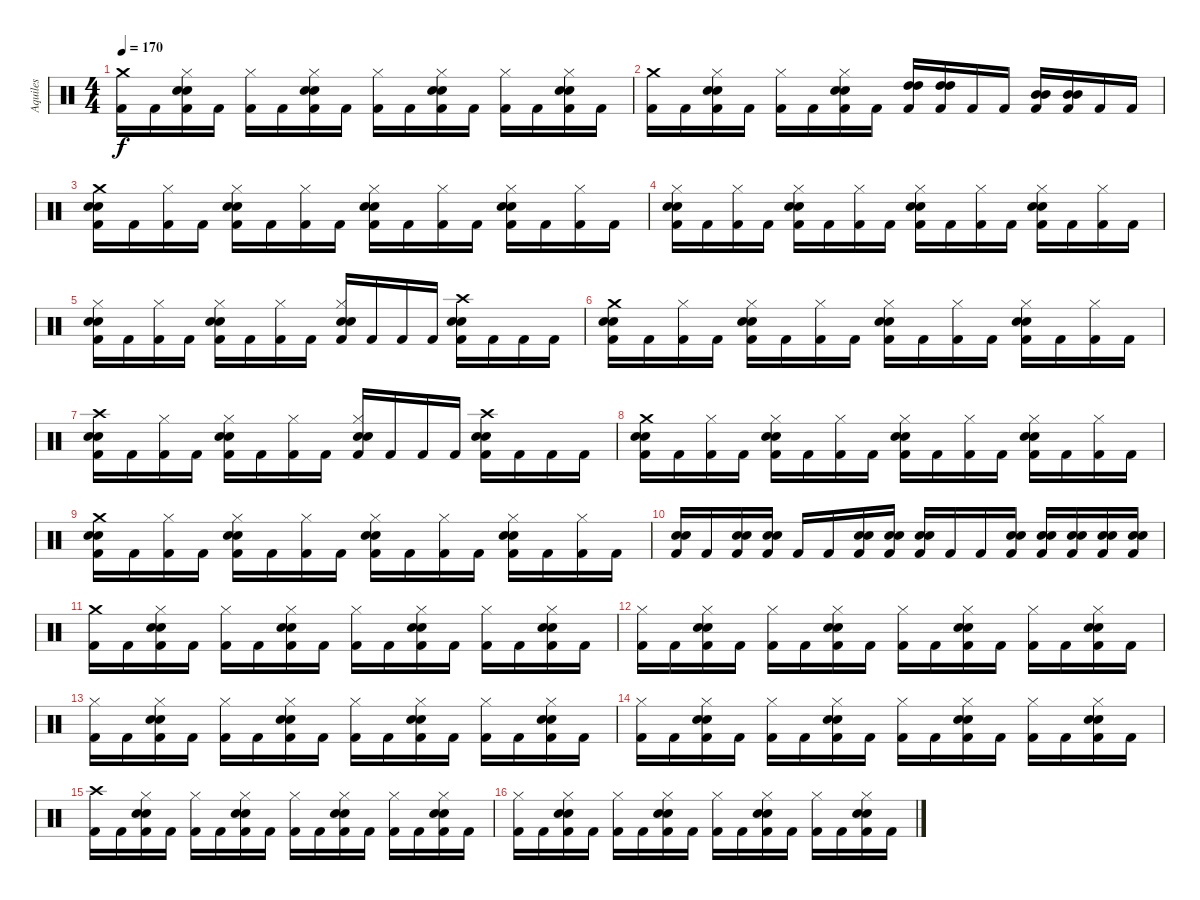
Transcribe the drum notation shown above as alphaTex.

\track ("Aquiles" "Aquiles") {instrument percussion}
\staff {score}
\articulation defaults
\ts (4 4)
\tempo 170
\clef neutral
\ks c
("Crash medium (hit)" "Kick (hit) 2").16{dy f} "Kick (hit) 2".16 ("Hi-Hat (closed)" "Electric Snare (hit)" "Snare (hit) 2" "Kick (hit) 2").16 "Kick (hit) 2".16 ("Hi-Hat (closed)" "Kick (hit) 2").16 "Kick (hit) 2".16 ("Hi-Hat (closed)" "Electric Snare (hit)" "Snare (hit) 2" "Kick (hit) 2").16 "Kick (hit) 2".16 ("Hi-Hat (closed)" "Kick (hit) 2").16 "Kick (hit) 2".16 ("Hi-Hat (closed)" "Electric Snare (hit)" "Snare (hit) 2" "Kick (hit) 2").16 "Kick (hit) 2".16 ("Hi-Hat (closed)" "Kick (hit) 2").16 "Kick (hit) 2".16 ("Hi-Hat (closed)" "Electric Snare (hit)" "Snare (hit) 2" "Kick (hit) 2").16 "Kick (hit) 2".16 |
("Crash medium (hit)" "Kick (hit) 2").16 "Kick (hit) 2".16 ("Hi-Hat (closed)" "Electric Snare (hit)" "Snare (hit) 2" "Kick (hit) 2").16 "Kick (hit) 2".16 ("Hi-Hat (closed)" "Kick (hit) 2").16 "Kick (hit) 2".16 ("Hi-Hat (closed)" "Electric Snare (hit)" "Snare (hit) 2" "Kick (hit) 2").16 "Kick (hit) 2".16 ("High Tom (hit)" "High Tom (hit)" "Kick (hit) 2").16 ("High Tom (hit)" "High Tom (hit)" "Kick (hit) 2").16 "Kick (hit) 2".16 "Kick (hit) 2".16 ("Mid Tom (hit)" "Mid Tom (hit)" "Kick (hit) 2").16 ("Mid Tom (hit)" "Mid Tom (hit)" "Kick (hit) 2").16 "Kick (hit) 2".16 "Kick (hit) 2".16 |
("Crash medium (hit)" "Electric Snare (hit)" "Snare (hit) 2" "Kick (hit) 2").16 "Kick (hit) 2".16 ("Hi-Hat (closed)" "Kick (hit) 2").16 "Kick (hit) 2".16 ("Hi-Hat (closed)" "Electric Snare (hit)" "Snare (hit) 2" "Kick (hit) 2").16 "Kick (hit) 2".16 ("Hi-Hat (closed)" "Kick (hit) 2").16 "Kick (hit) 2".16 ("Hi-Hat (closed)" "Electric Snare (hit)" "Snare (hit) 2" "Kick (hit) 2").16 "Kick (hit) 2".16 ("Hi-Hat (closed)" "Kick (hit) 2").16 "Kick (hit) 2".16 ("Hi-Hat (closed)" "Electric Snare (hit)" "Snare (hit) 2" "Kick (hit) 2").16 "Kick (hit) 2".16 ("Hi-Hat (closed)" "Kick (hit) 2").16 "Kick (hit) 2".16 |
("Hi-Hat (closed)" "Electric Snare (hit)" "Snare (hit) 2" "Kick (hit) 2").16 "Kick (hit) 2".16 ("Hi-Hat (closed)" "Kick (hit) 2").16 "Kick (hit) 2".16 ("Hi-Hat (closed)" "Electric Snare (hit)" "Snare (hit) 2" "Kick (hit) 2").16 "Kick (hit) 2".16 ("Hi-Hat (closed)" "Kick (hit) 2").16 "Kick (hit) 2".16 ("Hi-Hat (closed)" "Electric Snare (hit)" "Snare (hit) 2" "Kick (hit) 2").16 "Kick (hit) 2".16 ("Hi-Hat (closed)" "Kick (hit) 2").16 "Kick (hit) 2".16 ("Hi-Hat (closed)" "Electric Snare (hit)" "Snare (hit) 2" "Kick (hit) 2").16 "Kick (hit) 2".16 ("Hi-Hat (closed)" "Kick (hit) 2").16 "Kick (hit) 2".16 |
("Hi-Hat (closed)" "Electric Snare (hit)" "Snare (hit) 2" "Kick (hit) 2").16 "Kick (hit) 2".16 ("Hi-Hat (closed)" "Kick (hit) 2").16 "Kick (hit) 2".16 ("Hi-Hat (closed)" "Electric Snare (hit)" "Snare (hit) 2" "Kick (hit) 2").16 "Kick (hit) 2".16 ("Hi-Hat (closed)" "Kick (hit) 2").16 "Kick (hit) 2".16 ("Hi-Hat (closed)" "Electric Snare (hit)" "Snare (hit) 2" "Kick (hit) 2").16 "Kick (hit) 2".16 "Kick (hit) 2".16 "Kick (hit) 2".16 ("Crash high (hit)" "Electric Snare (hit)" "Snare (hit) 2" "Kick (hit) 2").16 "Kick (hit) 2".16 "Kick (hit) 2".16 "Kick (hit) 2".16 |
("Crash medium (hit)" "Electric Snare (hit)" "Snare (hit) 2" "Kick (hit) 2").16 "Kick (hit) 2".16 ("Hi-Hat (closed)" "Kick (hit) 2").16 "Kick (hit) 2".16 ("Hi-Hat (closed)" "Electric Snare (hit)" "Snare (hit) 2" "Kick (hit) 2").16 "Kick (hit) 2".16 ("Hi-Hat (closed)" "Kick (hit) 2").16 "Kick (hit) 2".16 ("Hi-Hat (closed)" "Electric Snare (hit)" "Snare (hit) 2" "Kick (hit) 2").16 "Kick (hit) 2".16 ("Hi-Hat (closed)" "Kick (hit) 2").16 "Kick (hit) 2".16 ("Hi-Hat (closed)" "Electric Snare (hit)" "Snare (hit) 2" "Kick (hit) 2").16 "Kick (hit) 2".16 ("Hi-Hat (closed)" "Kick (hit) 2").16 "Kick (hit) 2".16 |
("Crash high (hit)" "Electric Snare (hit)" "Snare (hit) 2" "Kick (hit) 2").16 "Kick (hit) 2".16 ("Hi-Hat (closed)" "Kick (hit) 2").16 "Kick (hit) 2".16 ("Hi-Hat (closed)" "Electric Snare (hit)" "Snare (hit) 2" "Kick (hit) 2").16 "Kick (hit) 2".16 ("Hi-Hat (closed)" "Kick (hit) 2").16 "Kick (hit) 2".16 ("Hi-Hat (closed)" "Electric Snare (hit)" "Snare (hit) 2" "Kick (hit) 2").16 "Kick (hit) 2".16 "Kick (hit) 2".16 "Kick (hit) 2".16 ("Crash high (hit)" "Electric Snare (hit)" "Snare (hit) 2" "Kick (hit) 2").16 "Kick (hit) 2".16 "Kick (hit) 2".16 "Kick (hit) 2".16 |
("Crash medium (hit)" "Electric Snare (hit)" "Snare (hit) 2" "Kick (hit) 2").16 "Kick (hit) 2".16 ("Hi-Hat (closed)" "Kick (hit) 2").16 "Kick (hit) 2".16 ("Hi-Hat (closed)" "Electric Snare (hit)" "Snare (hit) 2" "Kick (hit) 2").16 "Kick (hit) 2".16 ("Hi-Hat (closed)" "Kick (hit) 2").16 "Kick (hit) 2".16 ("Hi-Hat (closed)" "Electric Snare (hit)" "Snare (hit) 2" "Kick (hit) 2").16 "Kick (hit) 2".16 ("Hi-Hat (closed)" "Kick (hit) 2").16 "Kick (hit) 2".16 ("Hi-Hat (closed)" "Electric Snare (hit)" "Snare (hit) 2" "Kick (hit) 2").16 "Kick (hit) 2".16 ("Hi-Hat (closed)" "Kick (hit) 2").16 "Kick (hit) 2".16 |
("Crash medium (hit)" "Electric Snare (hit)" "Snare (hit) 2" "Kick (hit) 2").16 "Kick (hit) 2".16 ("Hi-Hat (closed)" "Kick (hit) 2").16 "Kick (hit) 2".16 ("Hi-Hat (closed)" "Electric Snare (hit)" "Snare (hit) 2" "Kick (hit) 2").16 "Kick (hit) 2".16 ("Hi-Hat (closed)" "Kick (hit) 2").16 "Kick (hit) 2".16 ("Hi-Hat (closed)" "Electric Snare (hit)" "Snare (hit) 2" "Kick (hit) 2").16 "Kick (hit) 2".16 ("Hi-Hat (closed)" "Kick (hit) 2").16 "Kick (hit) 2".16 ("Hi-Hat (closed)" "Electric Snare (hit)" "Snare (hit) 2" "Kick (hit) 2").16 "Kick (hit) 2".16 ("Hi-Hat (closed)" "Kick (hit) 2").16 "Kick (hit) 2".16 |
("Electric Snare (hit)" "Snare (hit) 2" "Kick (hit) 2").16 "Kick (hit) 2".16 ("Electric Snare (hit)" "Snare (hit) 2" "Kick (hit) 2").16 ("Electric Snare (hit)" "Snare (hit) 2" "Kick (hit) 2").16 "Kick (hit) 2".16 "Kick (hit) 2".16 ("Electric Snare (hit)" "Snare (hit) 2" "Kick (hit) 2").16 ("Electric Snare (hit)" "Snare (hit) 2" "Kick (hit) 2").16 ("Electric Snare (hit)" "Snare (hit) 2" "Kick (hit) 2").16 "Kick (hit) 2".16 "Kick (hit) 2".16 ("Electric Snare (hit)" "Snare (hit) 2" "Kick (hit) 2").16 ("Electric Snare (hit)" "Snare (hit) 2" "Kick (hit) 2").16 ("Electric Snare (hit)" "Snare (hit) 2" "Kick (hit) 2").16 ("Electric Snare (hit)" "Snare (hit) 2" "Kick (hit) 2").16 ("Electric Snare (hit)" "Snare (hit) 2" "Kick (hit) 2").16 |
("Crash medium (hit)" "Kick (hit) 2").16 "Kick (hit) 2".16 ("Hi-Hat (closed)" "Electric Snare (hit)" "Snare (hit) 2" "Kick (hit) 2").16 "Kick (hit) 2".16 ("Hi-Hat (closed)" "Kick (hit) 2").16 "Kick (hit) 2".16 ("Hi-Hat (closed)" "Electric Snare (hit)" "Snare (hit) 2" "Kick (hit) 2").16 "Kick (hit) 2".16 ("Hi-Hat (closed)" "Kick (hit) 2").16 "Kick (hit) 2".16 ("Hi-Hat (closed)" "Electric Snare (hit)" "Snare (hit) 2" "Kick (hit) 2").16 "Kick (hit) 2".16 ("Hi-Hat (closed)" "Kick (hit) 2").16 "Kick (hit) 2".16 ("Hi-Hat (closed)" "Electric Snare (hit)" "Snare (hit) 2" "Kick (hit) 2").16 "Kick (hit) 2".16 |
("Hi-Hat (closed)" "Kick (hit) 2").16 "Kick (hit) 2".16 ("Hi-Hat (closed)" "Electric Snare (hit)" "Snare (hit) 2" "Kick (hit) 2").16 "Kick (hit) 2".16 ("Hi-Hat (closed)" "Kick (hit) 2").16 "Kick (hit) 2".16 ("Hi-Hat (closed)" "Electric Snare (hit)" "Snare (hit) 2" "Kick (hit) 2").16 "Kick (hit) 2".16 ("Hi-Hat (closed)" "Kick (hit) 2").16 "Kick (hit) 2".16 ("Hi-Hat (closed)" "Electric Snare (hit)" "Snare (hit) 2" "Kick (hit) 2").16 "Kick (hit) 2".16 ("Hi-Hat (closed)" "Kick (hit) 2").16 "Kick (hit) 2".16 ("Hi-Hat (closed)" "Electric Snare (hit)" "Snare (hit) 2" "Kick (hit) 2").16 "Kick (hit) 2".16 |
("Hi-Hat (closed)" "Kick (hit) 2").16 "Kick (hit) 2".16 ("Hi-Hat (closed)" "Electric Snare (hit)" "Snare (hit) 2" "Kick (hit) 2").16 "Kick (hit) 2".16 ("Hi-Hat (closed)" "Kick (hit) 2").16 "Kick (hit) 2".16 ("Hi-Hat (closed)" "Electric Snare (hit)" "Snare (hit) 2" "Kick (hit) 2").16 "Kick (hit) 2".16 ("Hi-Hat (closed)" "Kick (hit) 2").16 "Kick (hit) 2".16 ("Hi-Hat (closed)" "Electric Snare (hit)" "Snare (hit) 2" "Kick (hit) 2").16 "Kick (hit) 2".16 ("Hi-Hat (closed)" "Kick (hit) 2").16 "Kick (hit) 2".16 ("Hi-Hat (closed)" "Electric Snare (hit)" "Snare (hit) 2" "Kick (hit) 2").16 "Kick (hit) 2".16 |
("Hi-Hat (closed)" "Kick (hit) 2").16 "Kick (hit) 2".16 ("Hi-Hat (closed)" "Electric Snare (hit)" "Snare (hit) 2" "Kick (hit) 2").16 "Kick (hit) 2".16 ("Hi-Hat (closed)" "Kick (hit) 2").16 "Kick (hit) 2".16 ("Hi-Hat (closed)" "Electric Snare (hit)" "Snare (hit) 2" "Kick (hit) 2").16 "Kick (hit) 2".16 ("Hi-Hat (closed)" "Kick (hit) 2").16 "Kick (hit) 2".16 ("Hi-Hat (closed)" "Electric Snare (hit)" "Snare (hit) 2" "Kick (hit) 2").16 "Kick (hit) 2".16 ("Hi-Hat (closed)" "Kick (hit) 2").16 "Kick (hit) 2".16 ("Hi-Hat (closed)" "Electric Snare (hit)" "Snare (hit) 2" "Kick (hit) 2").16 "Kick (hit) 2".16 |
("Crash high (hit)" "Kick (hit) 2").16 "Kick (hit) 2".16 ("Hi-Hat (closed)" "Electric Snare (hit)" "Snare (hit) 2" "Kick (hit) 2").16 "Kick (hit) 2".16 ("Hi-Hat (closed)" "Kick (hit) 2").16 "Kick (hit) 2".16 ("Hi-Hat (closed)" "Electric Snare (hit)" "Snare (hit) 2" "Kick (hit) 2").16 "Kick (hit) 2".16 ("Hi-Hat (closed)" "Kick (hit) 2").16 "Kick (hit) 2".16 ("Hi-Hat (closed)" "Electric Snare (hit)" "Snare (hit) 2" "Kick (hit) 2").16 "Kick (hit) 2".16 ("Hi-Hat (closed)" "Kick (hit) 2").16 "Kick (hit) 2".16 ("Hi-Hat (closed)" "Electric Snare (hit)" "Snare (hit) 2" "Kick (hit) 2").16 "Kick (hit) 2".16 |
("Hi-Hat (closed)" "Kick (hit) 2").16 "Kick (hit) 2".16 ("Hi-Hat (closed)" "Electric Snare (hit)" "Snare (hit) 2" "Kick (hit) 2").16 "Kick (hit) 2".16 ("Hi-Hat (closed)" "Kick (hit) 2").16 "Kick (hit) 2".16 ("Hi-Hat (closed)" "Electric Snare (hit)" "Snare (hit) 2" "Kick (hit) 2").16 "Kick (hit) 2".16 ("Hi-Hat (closed)" "Kick (hit) 2").16 "Kick (hit) 2".16 ("Hi-Hat (closed)" "Electric Snare (hit)" "Snare (hit) 2" "Kick (hit) 2").16 "Kick (hit) 2".16 ("Hi-Hat (closed)" "Kick (hit) 2").16 "Kick (hit) 2".16 ("Hi-Hat (closed)" "Electric Snare (hit)" "Snare (hit) 2" "Kick (hit) 2").16 "Kick (hit) 2".16
